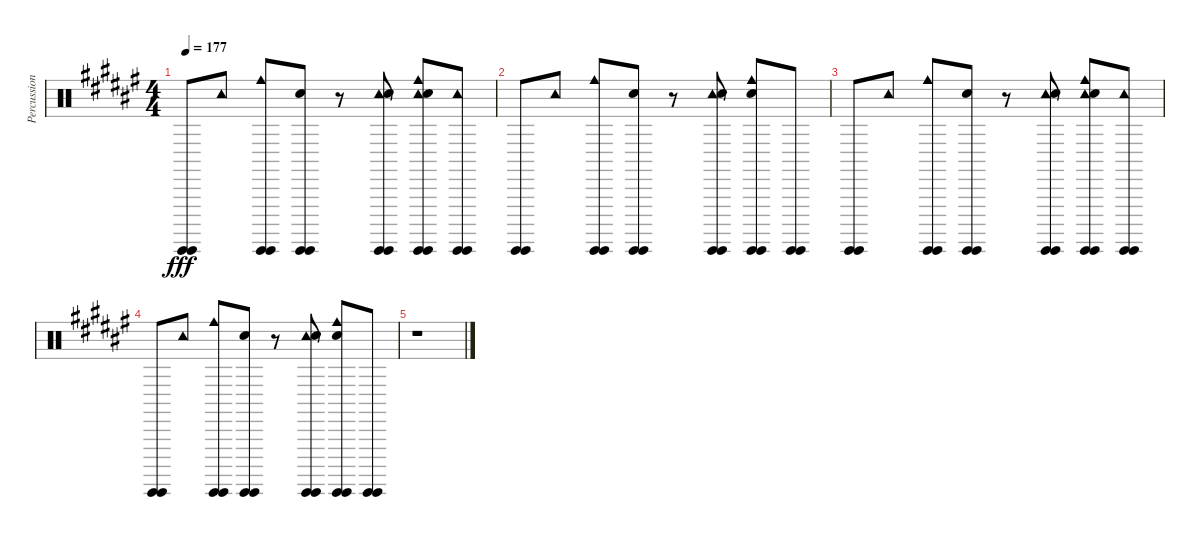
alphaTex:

\track ("Percussion" "Percussion") {instrument percussion}
\staff {score}
\articulation defaults
\ts (4 4)
\tempo 177
\clef neutral
\ks d#minor
("Guiro (hit)" "Guiro (hit)").8{dy fff} "Tambourine (hit)".8 ("Cowbell medium (hit)" "Guiro (hit)" "Guiro (hit)").8 ("Guiro (hit)" "Guiro (hit)" "Hand Clap (hit)").8 r.8 ("Tambourine (hit)" "Guiro (hit)" "Guiro (hit)" "Hand Clap (hit)").8 ("Cowbell medium (hit)" "Tambourine (hit)" "Guiro (hit)" "Guiro (hit)" "Hand Clap (hit)").8 ("Tambourine (hit)" "Guiro (hit)" "Guiro (hit)").8 |
("Guiro (hit)" "Guiro (hit)").8 "Tambourine (hit)".8 ("Cowbell medium (hit)" "Guiro (hit)" "Guiro (hit)").8 ("Guiro (hit)" "Guiro (hit)" "Hand Clap (hit)").8 r.8 ("Tambourine (hit)" "Guiro (hit)" "Guiro (hit)" "Hand Clap (hit)").8 ("Cowbell medium (hit)" "Guiro (hit)" "Guiro (hit)" "Hand Clap (hit)").8 ("Guiro (hit)" "Guiro (hit)").8 |
("Guiro (hit)" "Guiro (hit)").8 "Tambourine (hit)".8 ("Cowbell medium (hit)" "Guiro (hit)" "Guiro (hit)").8 ("Guiro (hit)" "Guiro (hit)" "Hand Clap (hit)").8 r.8 ("Tambourine (hit)" "Guiro (hit)" "Guiro (hit)" "Hand Clap (hit)").8 ("Cowbell medium (hit)" "Tambourine (hit)" "Guiro (hit)" "Guiro (hit)" "Hand Clap (hit)").8 ("Tambourine (hit)" "Guiro (hit)" "Guiro (hit)").8 |
("Guiro (hit)" "Guiro (hit)").8 "Tambourine (hit)".8 ("Cowbell medium (hit)" "Guiro (hit)" "Guiro (hit)").8 ("Guiro (hit)" "Guiro (hit)" "Hand Clap (hit)").8 r.8 ("Tambourine (hit)" "Guiro (hit)" "Guiro (hit)" "Hand Clap (hit)").8 ("Cowbell medium (hit)" "Guiro (hit)" "Guiro (hit)" "Hand Clap (hit)").8 ("Guiro (hit)" "Guiro (hit)").8 |
r.1
